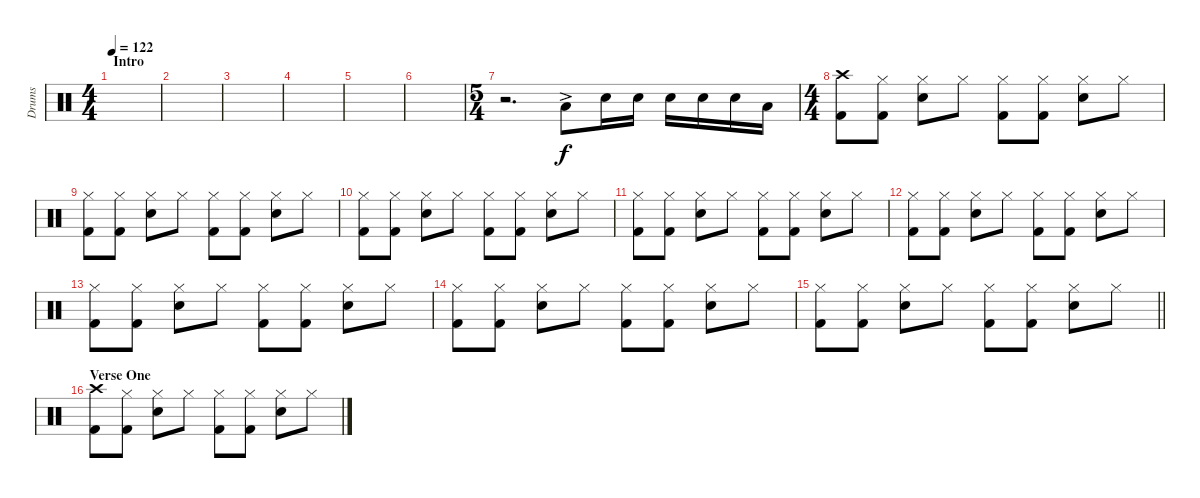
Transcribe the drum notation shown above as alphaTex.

\track ("Drums" "Drums") {instrument percussion}
\staff {score}
\articulation defaults
\ts (4 4)
\section ("" "Intro")
\tempo 122
\clef neutral
\ks c
|
|
|
|
|
|
\ts (5 4)
r.2{d} "Low Tom (hit)"{ac}.8 "Electric Snare (hit)".16{dy f volume 16} "Snare (hit) 2".16 "Snare (hit) 2".16 "Snare (hit) 2".16 "Snare (hit) 2".16 "Low Tom (hit)".16 |
\ts (4 4)
("Crash high (hit)" "Kick (hit) 2").8 ("Hi-Hat (closed)" "Kick (hit) 2").8 ("Hi-Hat (closed)" "Snare (hit) 2").8 "Hi-Hat (closed)".8 ("Hi-Hat (closed)" "Kick (hit) 2").8 ("Hi-Hat (closed)" "Kick (hit) 2").8 ("Hi-Hat (closed)" "Snare (hit) 2").8 "Hi-Hat (closed)".8 |
("Hi-Hat (closed)" "Kick (hit) 2").8 ("Hi-Hat (closed)" "Kick (hit) 2").8 ("Hi-Hat (closed)" "Snare (hit) 2").8 "Hi-Hat (closed)".8 ("Hi-Hat (closed)" "Kick (hit) 2").8 ("Hi-Hat (closed)" "Kick (hit) 2").8 ("Hi-Hat (closed)" "Snare (hit) 2").8 "Hi-Hat (closed)".8 |
("Hi-Hat (closed)" "Kick (hit) 2").8 ("Hi-Hat (closed)" "Kick (hit) 2").8 ("Hi-Hat (closed)" "Snare (hit) 2").8 "Hi-Hat (closed)".8 ("Hi-Hat (closed)" "Kick (hit) 2").8 ("Hi-Hat (closed)" "Kick (hit) 2").8 ("Hi-Hat (closed)" "Snare (hit) 2").8 "Hi-Hat (closed)".8 |
("Hi-Hat (closed)" "Kick (hit) 2").8 ("Hi-Hat (closed)" "Kick (hit) 2").8 ("Hi-Hat (closed)" "Snare (hit) 2").8 "Hi-Hat (closed)".8 ("Hi-Hat (closed)" "Kick (hit) 2").8 ("Hi-Hat (closed)" "Kick (hit) 2").8 ("Hi-Hat (closed)" "Snare (hit) 2").8 "Hi-Hat (closed)".8 |
("Hi-Hat (closed)" "Kick (hit) 2").8 ("Hi-Hat (closed)" "Kick (hit) 2").8 ("Hi-Hat (closed)" "Snare (hit) 2").8 "Hi-Hat (closed)".8 ("Hi-Hat (closed)" "Kick (hit) 2").8 ("Hi-Hat (closed)" "Kick (hit) 2").8 ("Hi-Hat (closed)" "Snare (hit) 2").8 "Hi-Hat (closed)".8 |
("Hi-Hat (closed)" "Kick (hit) 2").8 ("Hi-Hat (closed)" "Kick (hit) 2").8 ("Hi-Hat (closed)" "Snare (hit) 2").8 "Hi-Hat (closed)".8 ("Hi-Hat (closed)" "Kick (hit) 2").8 ("Hi-Hat (closed)" "Kick (hit) 2").8 ("Hi-Hat (closed)" "Snare (hit) 2").8 "Hi-Hat (closed)".8 |
("Hi-Hat (closed)" "Kick (hit) 2").8 ("Hi-Hat (closed)" "Kick (hit) 2").8 ("Hi-Hat (closed)" "Snare (hit) 2").8 "Hi-Hat (closed)".8 ("Hi-Hat (closed)" "Kick (hit) 2").8 ("Hi-Hat (closed)" "Kick (hit) 2").8 ("Hi-Hat (closed)" "Snare (hit) 2").8 "Hi-Hat (closed)".8 |
\barLineRight lightlight
("Hi-Hat (closed)" "Kick (hit) 2").8 ("Hi-Hat (closed)" "Kick (hit) 2").8 ("Hi-Hat (closed)" "Snare (hit) 2").8 "Hi-Hat (closed)".8 ("Hi-Hat (closed)" "Kick (hit) 2").8 ("Hi-Hat (closed)" "Kick (hit) 2").8 ("Hi-Hat (closed)" "Snare (hit) 2").8 "Hi-Hat (closed)".8 |
\section ("" "Verse One")
("Crash high (hit)" "Kick (hit) 2").8 ("Hi-Hat (closed)" "Kick (hit) 2").8 ("Hi-Hat (closed)" "Snare (hit) 2").8 "Hi-Hat (closed)".8 ("Hi-Hat (closed)" "Kick (hit) 2").8 ("Hi-Hat (closed)" "Kick (hit) 2").8 ("Hi-Hat (closed)" "Snare (hit) 2").8 "Hi-Hat (closed)".8
